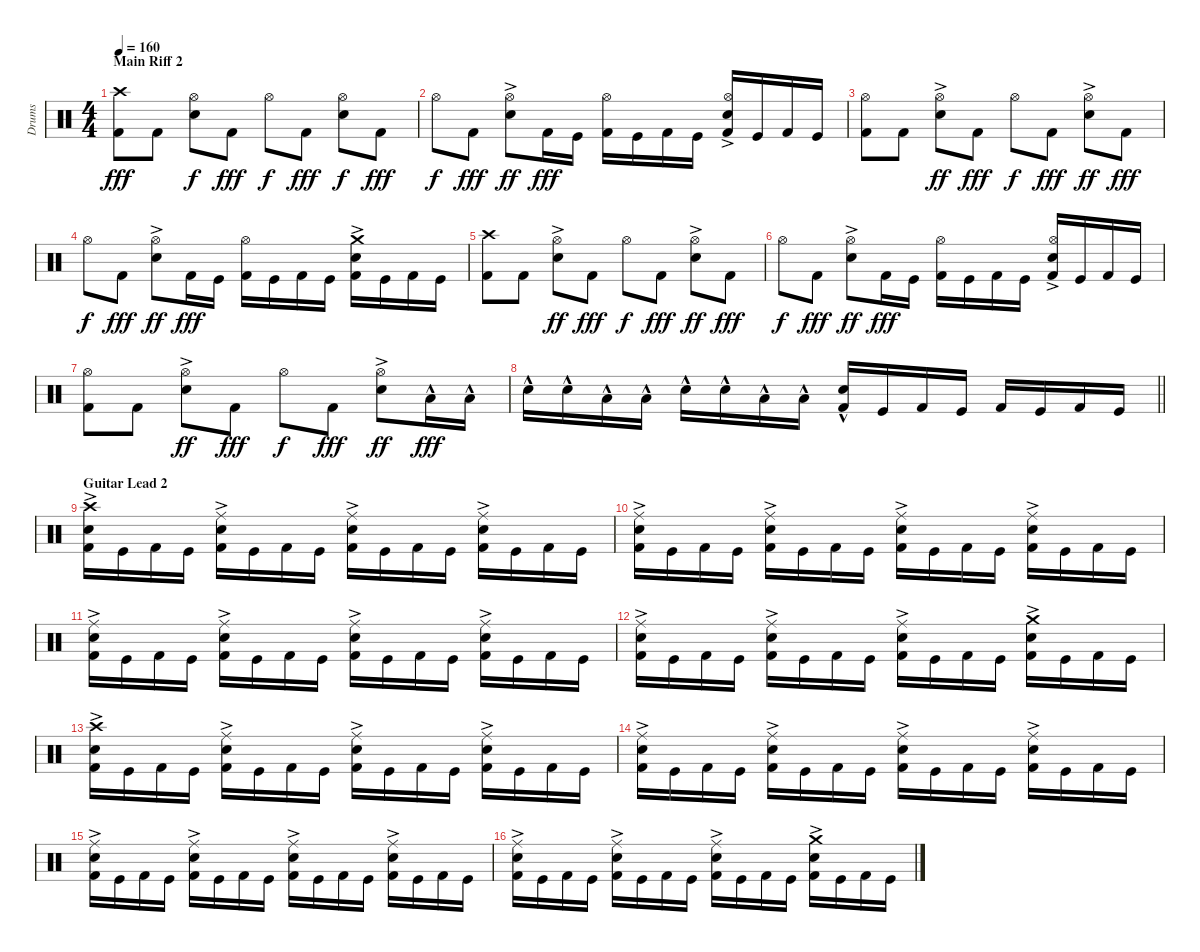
\track ("Drums" "Drums") {instrument percussion}
\staff {score}
\articulation defaults
\ts (4 4)
\section ("" "Main Riff 2")
\tempo 160
\clef neutral
\ks c
("Crash high (hit)" "Kick (hit) 2").8{dy fff} "Kick (hit) 2".8 ("Hi-Hat (open)" "Snare (hit) 2").8{dy f} "Kick (hit) 2".8{dy fff} "Hi-Hat (open)".8{dy f} "Kick (hit) 2".8{dy fff} ("Hi-Hat (open)" "Snare (hit) 2").8{dy f} "Kick (hit) 2".8{dy fff} |
"Hi-Hat (open)".8{dy f} "Kick (hit) 2".8{dy fff} ("Hi-Hat (open)" "Snare (hit) 2"{ac}).8{dy ff} "Kick (hit) 2".16{dy fff} "Kick (hit)".16 ("Hi-Hat (open)" "Kick (hit) 2").16 "Kick (hit)".16 "Kick (hit) 2".16 "Kick (hit)".16 ("Hi-Hat (open)" "Snare (hit) 2"{ac} "Kick (hit) 2").16 "Kick (hit)".16 "Kick (hit) 2".16 "Kick (hit)".16 |
("Hi-Hat (open)" "Kick (hit) 2").8 "Kick (hit) 2".8 ("Hi-Hat (open)" "Snare (hit) 2"{ac}).8{dy ff} "Kick (hit) 2".8{dy fff} "Hi-Hat (open)".8{dy f} "Kick (hit) 2".8{dy fff} ("Hi-Hat (open)" "Snare (hit) 2"{ac}).8{dy ff} "Kick (hit) 2".8{dy fff} |
"Hi-Hat (open)".8{dy f} "Kick (hit) 2".8{dy fff} ("Hi-Hat (open)" "Snare (hit) 2"{ac}).8{dy ff} "Kick (hit) 2".16{dy fff} "Kick (hit)".16 ("Hi-Hat (open)" "Kick (hit) 2").16 "Kick (hit)".16 "Kick (hit) 2".16 "Kick (hit)".16 ("Crash medium (hit)" "Snare (hit) 2"{ac} "Kick (hit) 2").16 "Kick (hit)".16 "Kick (hit) 2".16 "Kick (hit)".16 |
("Crash high (hit)" "Kick (hit) 2").8 "Kick (hit) 2".8 ("Hi-Hat (open)" "Snare (hit) 2"{ac}).8{dy ff} "Kick (hit) 2".8{dy fff} "Hi-Hat (open)".8{dy f} "Kick (hit) 2".8{dy fff} ("Hi-Hat (open)" "Snare (hit) 2"{ac}).8{dy ff} "Kick (hit) 2".8{dy fff} |
"Hi-Hat (open)".8{dy f} "Kick (hit) 2".8{dy fff} ("Hi-Hat (open)" "Snare (hit) 2"{ac}).8{dy ff} "Kick (hit) 2".16{dy fff} "Kick (hit)".16 ("Hi-Hat (open)" "Kick (hit) 2").16 "Kick (hit)".16 "Kick (hit) 2".16 "Kick (hit)".16 ("Hi-Hat (open)" "Snare (hit) 2"{ac} "Kick (hit) 2").16 "Kick (hit)".16 "Kick (hit) 2".16 "Kick (hit)".16 |
("Hi-Hat (open)" "Kick (hit) 2").8 "Kick (hit) 2".8 ("Hi-Hat (open)" "Snare (hit) 2"{ac}).8{dy ff} "Kick (hit) 2".8{dy fff} "Hi-Hat (open)".8{dy f} "Kick (hit) 2".8{dy fff} ("Hi-Hat (open)" "Snare (hit) 2"{ac}).8{dy ff} "Low Tom (hit)"{hac}.16{dy fff} "Low Tom (hit)"{hac}.16 |
\barLineRight lightlight "Snare (hit) 2"{hac}.16 "Snare (hit) 2"{hac}.16 "Low Tom (hit)"{hac}.16 "Low Tom (hit)"{hac}.16 "Snare (hit) 2"{hac}.16 "Snare (hit) 2"{hac}.16 "Low Tom (hit)"{hac}.16 "Low Tom (hit)"{hac}.16
("Snare (hit) 2"{hac} "Kick (hit) 2").16 "Kick (hit)".16 "Kick (hit) 2".16 "Kick (hit)".16 "Kick (hit) 2".16 "Kick (hit)".16 "Kick (hit) 2".16 "Kick (hit)".16 |
\section ("" "Guitar Lead 2")
("Crash high (hit)" "Snare (hit) 2"{ac} "Kick (hit) 2").16 "Kick (hit)".16 "Kick (hit) 2".16 "Kick (hit)".16 ("Ride (middle)" "Snare (hit) 2"{ac} "Kick (hit) 2").16 "Kick (hit)".16 "Kick (hit) 2".16 "Kick (hit)".16 ("Ride (middle)" "Snare (hit) 2"{ac} "Kick (hit) 2").16 "Kick (hit)".16 "Kick (hit) 2".16 "Kick (hit)".16 ("Ride (middle)" "Snare (hit) 2"{ac} "Kick (hit) 2").16 "Kick (hit)".16 "Kick (hit) 2".16 "Kick (hit)".16 |
("Ride (middle)" "Snare (hit) 2"{ac} "Kick (hit) 2").16 "Kick (hit)".16 "Kick (hit) 2".16 "Kick (hit)".16 ("Ride (middle)" "Snare (hit) 2"{ac} "Kick (hit) 2").16 "Kick (hit)".16 "Kick (hit) 2".16 "Kick (hit)".16 ("Ride (middle)" "Snare (hit) 2"{ac} "Kick (hit) 2").16 "Kick (hit)".16 "Kick (hit) 2".16 "Kick (hit)".16 ("Ride (middle)" "Snare (hit) 2"{ac} "Kick (hit) 2").16 "Kick (hit)".16 "Kick (hit) 2".16 "Kick (hit)".16 |
("Ride (middle)" "Snare (hit) 2"{ac} "Kick (hit) 2").16 "Kick (hit)".16 "Kick (hit) 2".16 "Kick (hit)".16 ("Ride (middle)" "Snare (hit) 2"{ac} "Kick (hit) 2").16 "Kick (hit)".16 "Kick (hit) 2".16 "Kick (hit)".16 ("Ride (middle)" "Snare (hit) 2"{ac} "Kick (hit) 2").16 "Kick (hit)".16 "Kick (hit) 2".16 "Kick (hit)".16 ("Ride (middle)" "Snare (hit) 2"{ac} "Kick (hit) 2").16 "Kick (hit)".16 "Kick (hit) 2".16 "Kick (hit)".16 |
("Ride (middle)" "Snare (hit) 2"{ac} "Kick (hit) 2").16 "Kick (hit)".16 "Kick (hit) 2".16 "Kick (hit)".16 ("Ride (middle)" "Snare (hit) 2"{ac} "Kick (hit) 2").16 "Kick (hit)".16 "Kick (hit) 2".16 "Kick (hit)".16 ("Ride (middle)" "Snare (hit) 2"{ac} "Kick (hit) 2").16 "Kick (hit)".16 "Kick (hit) 2".16 "Kick (hit)".16 ("Crash medium (hit)" "Snare (hit) 2"{ac} "Kick (hit) 2").16 "Kick (hit)".16 "Kick (hit) 2".16 "Kick (hit)".16 |
("Crash high (hit)" "Snare (hit) 2"{ac} "Kick (hit) 2").16 "Kick (hit)".16 "Kick (hit) 2".16 "Kick (hit)".16 ("Ride (middle)" "Snare (hit) 2"{ac} "Kick (hit) 2").16 "Kick (hit)".16 "Kick (hit) 2".16 "Kick (hit)".16 ("Ride (middle)" "Snare (hit) 2"{ac} "Kick (hit) 2").16 "Kick (hit)".16 "Kick (hit) 2".16 "Kick (hit)".16 ("Ride (middle)" "Snare (hit) 2"{ac} "Kick (hit) 2").16 "Kick (hit)".16 "Kick (hit) 2".16 "Kick (hit)".16 |
("Ride (middle)" "Snare (hit) 2"{ac} "Kick (hit) 2").16 "Kick (hit)".16 "Kick (hit) 2".16 "Kick (hit)".16 ("Ride (middle)" "Snare (hit) 2"{ac} "Kick (hit) 2").16 "Kick (hit)".16 "Kick (hit) 2".16 "Kick (hit)".16 ("Ride (middle)" "Snare (hit) 2"{ac} "Kick (hit) 2").16 "Kick (hit)".16 "Kick (hit) 2".16 "Kick (hit)".16 ("Ride (middle)" "Snare (hit) 2"{ac} "Kick (hit) 2").16 "Kick (hit)".16 "Kick (hit) 2".16 "Kick (hit)".16 |
("Ride (middle)" "Snare (hit) 2"{ac} "Kick (hit) 2").16 "Kick (hit)".16 "Kick (hit) 2".16 "Kick (hit)".16 ("Ride (middle)" "Snare (hit) 2"{ac} "Kick (hit) 2").16 "Kick (hit)".16 "Kick (hit) 2".16 "Kick (hit)".16 ("Ride (middle)" "Snare (hit) 2"{ac} "Kick (hit) 2").16 "Kick (hit)".16 "Kick (hit) 2".16 "Kick (hit)".16 ("Ride (middle)" "Snare (hit) 2"{ac} "Kick (hit) 2").16 "Kick (hit)".16 "Kick (hit) 2".16 "Kick (hit)".16 |
("Ride (middle)" "Snare (hit) 2"{ac} "Kick (hit) 2").16 "Kick (hit)".16 "Kick (hit) 2".16 "Kick (hit)".16 ("Ride (middle)" "Snare (hit) 2"{ac} "Kick (hit) 2").16 "Kick (hit)".16 "Kick (hit) 2".16 "Kick (hit)".16 ("Ride (middle)" "Snare (hit) 2"{ac} "Kick (hit) 2").16 "Kick (hit)".16 "Kick (hit) 2".16 "Kick (hit)".16 ("Crash medium (hit)" "Snare (hit) 2"{ac} "Kick (hit) 2").16 "Kick (hit)".16 "Kick (hit) 2".16 "Kick (hit)".16
